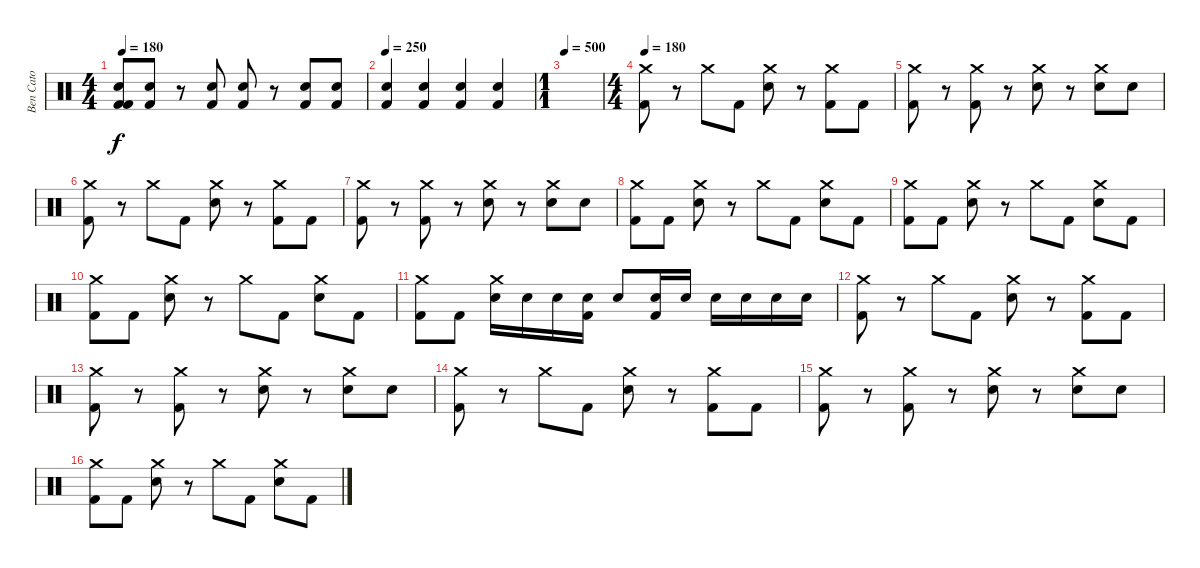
\track ("Ben Cato" "Ben Cato") {instrument percussion}
\staff {score}
\articulation defaults
\ts (4 4)
\tempo 180
\clef neutral
\ks c
("Kick (hit) 2" "Electric Snare (hit)" "Kick (hit) 2").8{dy f} ("Electric Snare (hit)" "Kick (hit) 2").8 r.8 ("Electric Snare (hit)" "Kick (hit) 2").8 ("Electric Snare (hit)" "Kick (hit) 2").8 r.8 ("Electric Snare (hit)" "Kick (hit) 2").8 ("Electric Snare (hit)" "Kick (hit) 2").8 |
\tempo 250
("Electric Snare (hit)" "Kick (hit) 2").4 ("Electric Snare (hit)" "Kick (hit) 2").4 ("Electric Snare (hit)" "Kick (hit) 2").4 ("Electric Snare (hit)" "Kick (hit) 2").4 |
\ts (1 1)
\tempo 500
|
\ts (4 4)
\tempo 180
("Crash medium (hit)" "Kick (hit) 2").8 r.8 "Crash medium (hit)".8 "Kick (hit) 2".8 ("Crash medium (hit)" "Electric Snare (hit)").8 r.8 ("Crash medium (hit)" "Kick (hit) 2").8 "Kick (hit) 2".8 |
("Crash medium (hit)" "Kick (hit) 2").8 r.8 ("Crash medium (hit)" "Kick (hit) 2").8 r.8 ("Crash medium (hit)" "Electric Snare (hit)").8 r.8 ("Crash medium (hit)" "Electric Snare (hit)").8 "Electric Snare (hit)".8 |
("Crash medium (hit)" "Kick (hit) 2").8 r.8 "Crash medium (hit)".8 "Kick (hit) 2".8 ("Crash medium (hit)" "Electric Snare (hit)").8 r.8 ("Crash medium (hit)" "Kick (hit) 2").8 "Kick (hit) 2".8 |
("Crash medium (hit)" "Kick (hit) 2").8 r.8 ("Crash medium (hit)" "Kick (hit) 2").8 r.8 ("Crash medium (hit)" "Electric Snare (hit)").8 r.8 ("Crash medium (hit)" "Electric Snare (hit)").8 "Electric Snare (hit)".8 |
("Crash medium (hit)" "Kick (hit) 2").8 "Kick (hit) 2".8 ("Crash medium (hit)" "Electric Snare (hit)").8 r.8 "Crash medium (hit)".8 "Kick (hit) 2".8 ("Crash medium (hit)" "Electric Snare (hit)").8 "Kick (hit) 2".8 |
("Crash medium (hit)" "Kick (hit) 2").8 "Kick (hit) 2".8 ("Crash medium (hit)" "Electric Snare (hit)").8 r.8 "Crash medium (hit)".8 "Kick (hit) 2".8 ("Crash medium (hit)" "Electric Snare (hit)").8 "Kick (hit) 2".8 |
("Crash medium (hit)" "Kick (hit) 2").8 "Kick (hit) 2".8 ("Crash medium (hit)" "Electric Snare (hit)").8 r.8 "Crash medium (hit)".8 "Kick (hit) 2".8 ("Crash medium (hit)" "Electric Snare (hit)").8 "Kick (hit) 2".8 |
("Crash medium (hit)" "Kick (hit) 2").8 "Kick (hit) 2".8 ("Crash medium (hit)" "Electric Snare (hit)").16 "Electric Snare (hit)".16 "Electric Snare (hit)".16 ("Electric Snare (hit)" "Kick (hit) 2").16 "Electric Snare (hit)".8 ("Electric Snare (hit)" "Kick (hit) 2").16 "Electric Snare (hit)".16 "Electric Snare (hit)".16 "Electric Snare (hit)".16 "Electric Snare (hit)".16 "Electric Snare (hit)".16 |
("Crash medium (hit)" "Kick (hit) 2").8 r.8 "Crash medium (hit)".8 "Kick (hit) 2".8 ("Crash medium (hit)" "Electric Snare (hit)").8 r.8 ("Crash medium (hit)" "Kick (hit) 2").8 "Kick (hit) 2".8 |
("Crash medium (hit)" "Kick (hit) 2").8 r.8 ("Crash medium (hit)" "Kick (hit) 2").8 r.8 ("Crash medium (hit)" "Electric Snare (hit)").8 r.8 ("Crash medium (hit)" "Electric Snare (hit)").8 "Electric Snare (hit)".8 |
("Crash medium (hit)" "Kick (hit) 2").8 r.8 "Crash medium (hit)".8 "Kick (hit) 2".8 ("Crash medium (hit)" "Electric Snare (hit)").8 r.8 ("Crash medium (hit)" "Kick (hit) 2").8 "Kick (hit) 2".8 |
("Crash medium (hit)" "Kick (hit) 2").8 r.8 ("Crash medium (hit)" "Kick (hit) 2").8 r.8 ("Crash medium (hit)" "Electric Snare (hit)").8 r.8 ("Crash medium (hit)" "Electric Snare (hit)").8 "Electric Snare (hit)".8 |
("Crash medium (hit)" "Kick (hit) 2").8 "Kick (hit) 2".8 ("Crash medium (hit)" "Electric Snare (hit)").8 r.8 "Crash medium (hit)".8 "Kick (hit) 2".8 ("Crash medium (hit)" "Electric Snare (hit)").8 "Kick (hit) 2".8
